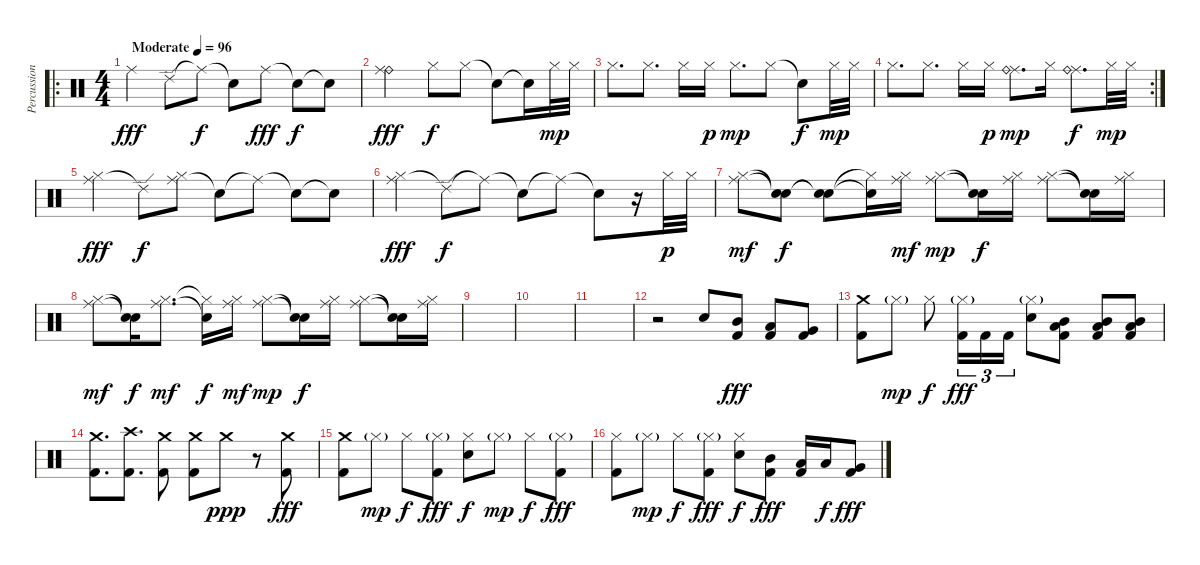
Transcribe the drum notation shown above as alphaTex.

\track ("Percussion" "Percussion") {instrument percussion}
\staff {score}
\articulation defaults
\ro
\ts (4 4)
\tempo (96 "Moderate")
\clef neutral
\ks c "Ride (middle)".4{dy fff} "Ride (edge) 2".8 "Ride (middle)"{t}.8{dy f} "Snare (hit)"{t}.8 "Ride (middle)".8{dy fff} "Snare (hit)"{t}.8{dy f} "Snare (hit)"{t}.8
|
("Ride (bell)" "Ride (middle)").2{dy fff} "Hi-Hat (closed)".8{dy f} "Hi-Hat (closed)".8 "Snare (hit)"{t}.8 "Snare (hit)"{t}.16 "Hi-Hat (closed)".32{dy mp} "Hi-Hat (closed)".32 |
"Hi-Hat (closed)".8{d} "Hi-Hat (closed)".8{d} "Hi-Hat (closed)".16 "Hi-Hat (closed)".16{dy p} "Hi-Hat (closed)".8{d dy mp} "Hi-Hat (closed)".8 "Snare (hit)"{t}.8{dy f} "Hi-Hat (closed)".32{dy mp} "Hi-Hat (closed)".32 |
\rc 2 "Hi-Hat (closed)".8{d} "Hi-Hat (closed)".8{d} "Hi-Hat (closed)".16 "Hi-Hat (closed)".16{dy p}
("Ride (middle)" "Ride (bell)").8{d dy mp} "Hi-Hat (closed)".16 ("Ride (middle)" "Ride (bell)").8{d dy f} "Hi-Hat (closed)".32{dy mp} "Hi-Hat (closed)".32 |
("Ride (middle)" "Hi-Hat (closed)").4{dy fff} "Ride (edge) 2"{t}.8{dy f} ("Ride (middle)" "Hi-Hat (closed)").8 "Snare (hit)"{t}.8 "Ride (middle)"{t}.8 "Snare (hit)"{t}.8 "Snare (hit)"{t}.8 |
("Ride (middle)" "Hi-Hat (closed)").4{dy fff} "Ride (edge) 2"{t}.8{dy f} "Ride (middle)"{t}.8 "Snare (hit)"{t}.8 "Ride (middle)"{t}.8 "Snare (hit)"{t}.8 r.16 "Hi-Hat (closed)".32{dy p} "Hi-Hat (closed)".32 |
("Hi-Hat (closed)" "Ride (middle)").8{dy mf} ("Snare (hit)"{t} "Snare (hit)"{t}).8{dy f} ("Snare (hit)"{t} "Snare (hit)"{t}).8 ("Hi-Hat (closed)"{t} "Snare (hit)"{t}).16 ("Hi-Hat (closed)" "Ride (middle)").16{dy mf} ("Hi-Hat (closed)" "Ride (middle)").8{dy mp} ("Snare (hit)"{t} "Snare (hit)"{t}).16{dy f} ("Hi-Hat (closed)" "Ride (middle)").16 ("Hi-Hat (closed)" "Ride (middle)").8 ("Snare (hit)"{t} "Snare (hit)"{t}).16 ("Hi-Hat (closed)" "Ride (middle)").16 |
("Hi-Hat (closed)" "Ride (middle)").8{dy mf} ("Snare (hit)"{t} "Snare (hit)"{t}).16{dy f} ("Hi-Hat (closed)" "Ride (middle)").8{d dy mf} ("Hi-Hat (closed)"{t} "Snare (hit)"{t}).16{dy f} ("Hi-Hat (closed)" "Ride (middle)").16{dy mf} ("Hi-Hat (closed)" "Ride (middle)").8{dy mp} ("Snare (hit)"{t} "Snare (hit)"{t}).16{dy f} ("Hi-Hat (closed)" "Ride (middle)").16 ("Hi-Hat (closed)" "Ride (middle)").8 ("Snare (hit)"{t} "Snare (hit)"{t}).16 ("Hi-Hat (closed)" "Ride (middle)").16 |
|
|
|
r.2 "Electric Snare (hit)".8 ("Mid Tom (hit)" "Kick (hit) 2").8{dy fff} ("Low Tom (hit)" "Kick (hit) 2").8 ("Very Low Tom (hit)" "Kick (hit) 2").8 |
("Crash medium (hit)" "Kick (hit) 2").8 "Hi-Hat (closed)"{g}.8{dy mp} "Hi-Hat (closed)".8{dy f} ("Hi-Hat (closed)"{g} "Kick (hit) 2").16{tu (3 2) dy fff} "Kick (hit) 2".16{tu (3 2)} "Kick (hit) 2".16{tu (3 2)} ("Hi-Hat (closed)"{g} "Electric Snare (hit)").8 ("Mid Tom (hit)" "Low Tom (hit)" "Kick (hit) 2").8 ("Mid Tom (hit)" "Low Tom (hit)" "Kick (hit) 2").8 ("Mid Tom (hit)" "Low Tom (hit)" "Kick (hit) 2").8 |
("Crash medium (hit)" "Kick (hit) 2").8{d} ("Crash high (hit)" "Kick (hit) 2").8{d} ("Crash medium (hit)" "Kick (hit) 2").8 ("Crash medium (hit)" "Kick (hit) 2").8 "Crash medium (hit)".8{dy ppp} r.8 ("Crash medium (hit)" "Kick (hit) 2").8{dy fff} |
("Crash medium (hit)" "Kick (hit) 2").8 "Hi-Hat (closed)"{g}.8{dy mp} "Hi-Hat (closed)".8{dy f} ("Hi-Hat (closed)"{g} "Kick (hit) 2").8{dy fff} ("Hi-Hat (closed)" "Electric Snare (hit)").8{dy f} "Hi-Hat (closed)"{g}.8{dy mp} "Hi-Hat (closed)".8{dy f} ("Hi-Hat (closed)"{g} "Kick (hit) 2").8{dy fff} |
("Hi-Hat (closed)" "Kick (hit) 2").8 "Hi-Hat (closed)"{g}.8{dy mp} "Hi-Hat (closed)".8{dy f} ("Hi-Hat (closed)"{g} "Kick (hit) 2").8{dy fff} ("Hi-Hat (closed)" "Electric Snare (hit)").8{dy f} ("Mid Tom (hit)" "Kick (hit) 2").8{dy fff} ("Low Tom (hit)" "Kick (hit) 2").16 "Low Tom (hit)".16{dy f} ("Very Low Tom (hit)" "Kick (hit) 2").8{dy fff}
